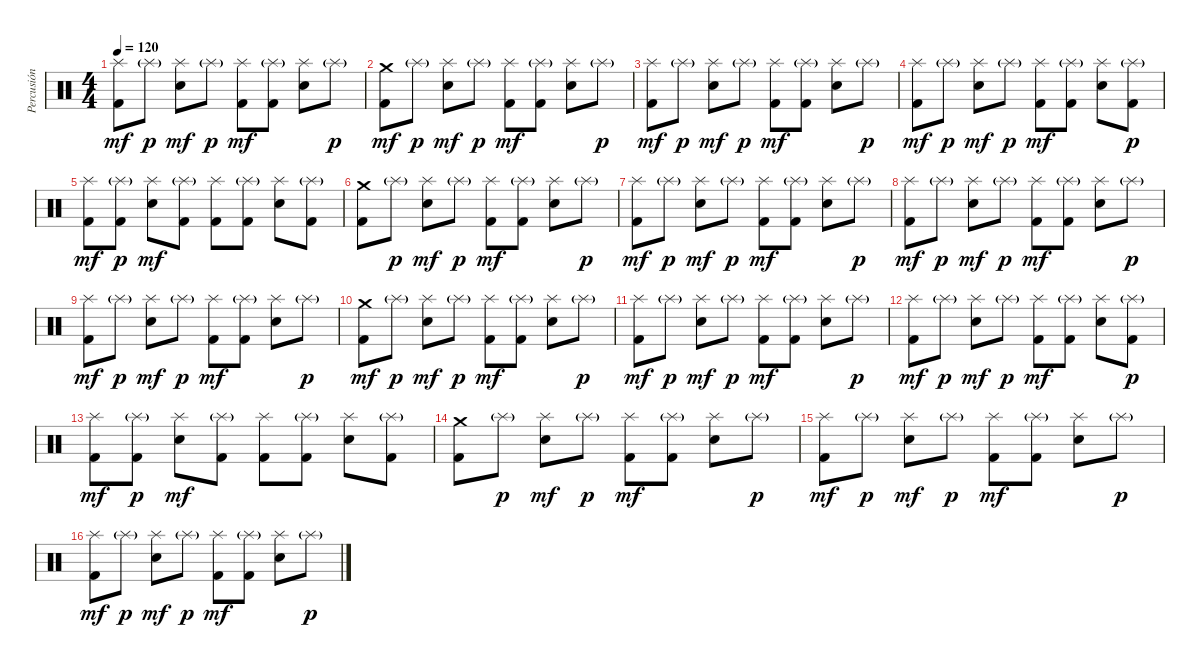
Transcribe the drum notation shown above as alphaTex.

\track ("Percusión" "Percusión") {instrument percussion}
\staff {score}
\articulation defaults
\ts (4 4)
\tempo 120
\clef neutral
\ks c
("Splash (hit)" "Kick (hit) 2").8{dy mf} "Splash (hit)"{g}.8{dy p} ("Splash (hit)" "Electric Snare (hit)").8{dy mf} "Splash (hit)"{g}.8{dy p} ("Splash (hit)" "Kick (hit) 2").8{dy mf} ("Splash (hit)"{g} "Kick (hit) 2").8 ("Splash (hit)" "Electric Snare (hit)").8 "Splash (hit)"{g}.8{dy p} |
("Crash medium (hit)" "Kick (hit) 2").8{dy mf} "Splash (hit)"{g}.8{dy p} ("Splash (hit)" "Electric Snare (hit)").8{dy mf} "Splash (hit)"{g}.8{dy p} ("Splash (hit)" "Kick (hit) 2").8{dy mf} ("Splash (hit)"{g} "Kick (hit) 2").8 ("Splash (hit)" "Electric Snare (hit)").8 "Splash (hit)"{g}.8{dy p} |
("Splash (hit)" "Kick (hit) 2").8{dy mf} "Splash (hit)"{g}.8{dy p} ("Splash (hit)" "Electric Snare (hit)").8{dy mf} "Splash (hit)"{g}.8{dy p} ("Splash (hit)" "Kick (hit) 2").8{dy mf} ("Splash (hit)"{g} "Kick (hit) 2").8 ("Splash (hit)" "Electric Snare (hit)").8 "Splash (hit)"{g}.8{dy p} |
("Splash (hit)" "Kick (hit) 2").8{dy mf} "Splash (hit)"{g}.8{dy p} ("Splash (hit)" "Electric Snare (hit)").8{dy mf} "Splash (hit)"{g}.8{dy p} ("Splash (hit)" "Kick (hit) 2").8{dy mf} ("Splash (hit)"{g} "Kick (hit) 2").8 ("Splash (hit)" "Electric Snare (hit)").8 ("Splash (hit)"{g} "Kick (hit) 2").8{dy p} |
("Splash (hit)" "Kick (hit) 2").8{dy mf} ("Splash (hit)"{g} "Kick (hit) 2").8{dy p} ("Splash (hit)" "Electric Snare (hit)").8{dy mf} ("Splash (hit)"{g} "Kick (hit) 2").8 ("Splash (hit)" "Kick (hit) 2").8 ("Splash (hit)"{g} "Kick (hit) 2").8 ("Splash (hit)" "Electric Snare (hit)").8 ("Splash (hit)"{g} "Kick (hit) 2").8 |
("Crash medium (hit)" "Kick (hit) 2").8 "Splash (hit)"{g}.8{dy p} ("Splash (hit)" "Electric Snare (hit)").8{dy mf} "Splash (hit)"{g}.8{dy p} ("Splash (hit)" "Kick (hit) 2").8{dy mf} ("Splash (hit)"{g} "Kick (hit) 2").8 ("Splash (hit)" "Electric Snare (hit)").8 "Splash (hit)"{g}.8{dy p} |
("Splash (hit)" "Kick (hit) 2").8{dy mf} "Splash (hit)"{g}.8{dy p} ("Splash (hit)" "Electric Snare (hit)").8{dy mf} "Splash (hit)"{g}.8{dy p} ("Splash (hit)" "Kick (hit) 2").8{dy mf} ("Splash (hit)"{g} "Kick (hit) 2").8 ("Splash (hit)" "Electric Snare (hit)").8 "Splash (hit)"{g}.8{dy p} |
("Splash (hit)" "Kick (hit) 2").8{dy mf} "Splash (hit)"{g}.8{dy p} ("Splash (hit)" "Electric Snare (hit)").8{dy mf} "Splash (hit)"{g}.8{dy p} ("Splash (hit)" "Kick (hit) 2").8{dy mf} ("Splash (hit)"{g} "Kick (hit) 2").8 ("Splash (hit)" "Electric Snare (hit)").8 "Splash (hit)"{g}.8{dy p} |
("Splash (hit)" "Kick (hit) 2").8{dy mf} "Splash (hit)"{g}.8{dy p} ("Splash (hit)" "Electric Snare (hit)").8{dy mf} "Splash (hit)"{g}.8{dy p} ("Splash (hit)" "Kick (hit) 2").8{dy mf} ("Splash (hit)"{g} "Kick (hit) 2").8 ("Splash (hit)" "Electric Snare (hit)").8 "Splash (hit)"{g}.8{dy p} |
("Crash medium (hit)" "Kick (hit) 2").8{dy mf} "Splash (hit)"{g}.8{dy p} ("Splash (hit)" "Electric Snare (hit)").8{dy mf} "Splash (hit)"{g}.8{dy p} ("Splash (hit)" "Kick (hit) 2").8{dy mf} ("Splash (hit)"{g} "Kick (hit) 2").8 ("Splash (hit)" "Electric Snare (hit)").8 "Splash (hit)"{g}.8{dy p} |
("Splash (hit)" "Kick (hit) 2").8{dy mf} "Splash (hit)"{g}.8{dy p} ("Splash (hit)" "Electric Snare (hit)").8{dy mf} "Splash (hit)"{g}.8{dy p} ("Splash (hit)" "Kick (hit) 2").8{dy mf} ("Splash (hit)"{g} "Kick (hit) 2").8 ("Splash (hit)" "Electric Snare (hit)").8 "Splash (hit)"{g}.8{dy p} |
("Splash (hit)" "Kick (hit) 2").8{dy mf} "Splash (hit)"{g}.8{dy p} ("Splash (hit)" "Electric Snare (hit)").8{dy mf} "Splash (hit)"{g}.8{dy p} ("Splash (hit)" "Kick (hit) 2").8{dy mf} ("Splash (hit)"{g} "Kick (hit) 2").8 ("Splash (hit)" "Electric Snare (hit)").8 ("Splash (hit)"{g} "Kick (hit) 2").8{dy p} |
("Splash (hit)" "Kick (hit) 2").8{dy mf} ("Splash (hit)"{g} "Kick (hit) 2").8{dy p} ("Splash (hit)" "Electric Snare (hit)").8{dy mf} ("Splash (hit)"{g} "Kick (hit) 2").8 ("Splash (hit)" "Kick (hit) 2").8 ("Splash (hit)"{g} "Kick (hit) 2").8 ("Splash (hit)" "Electric Snare (hit)").8 ("Splash (hit)"{g} "Kick (hit) 2").8 |
("Crash medium (hit)" "Kick (hit) 2").8 "Splash (hit)"{g}.8{dy p} ("Splash (hit)" "Electric Snare (hit)").8{dy mf} "Splash (hit)"{g}.8{dy p} ("Splash (hit)" "Kick (hit) 2").8{dy mf} ("Splash (hit)"{g} "Kick (hit) 2").8 ("Splash (hit)" "Electric Snare (hit)").8 "Splash (hit)"{g}.8{dy p} |
("Splash (hit)" "Kick (hit) 2").8{dy mf} "Splash (hit)"{g}.8{dy p} ("Splash (hit)" "Electric Snare (hit)").8{dy mf} "Splash (hit)"{g}.8{dy p} ("Splash (hit)" "Kick (hit) 2").8{dy mf} ("Splash (hit)"{g} "Kick (hit) 2").8 ("Splash (hit)" "Electric Snare (hit)").8 "Splash (hit)"{g}.8{dy p} |
("Splash (hit)" "Kick (hit) 2").8{dy mf} "Splash (hit)"{g}.8{dy p} ("Splash (hit)" "Electric Snare (hit)").8{dy mf} "Splash (hit)"{g}.8{dy p} ("Splash (hit)" "Kick (hit) 2").8{dy mf} ("Splash (hit)"{g} "Kick (hit) 2").8 ("Splash (hit)" "Electric Snare (hit)").8 "Splash (hit)"{g}.8{dy p}
